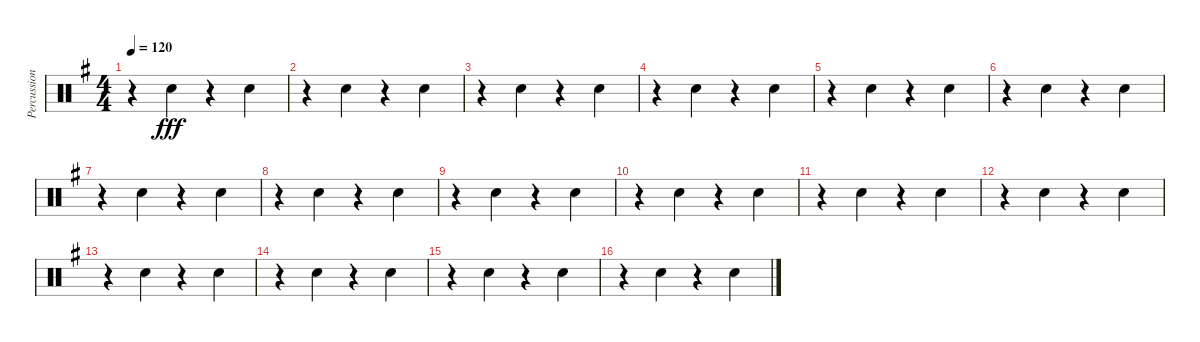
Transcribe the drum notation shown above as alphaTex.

\track ("Percussion" "Percussion") {instrument percussion}
\staff {score}
\articulation defaults
\ts (4 4)
\tempo 120
\clef neutral
\ks g
r.4{dy f} "Hand Clap (hit)".4{dy fff} r.4 "Hand Clap (hit)".4 |
r.4 "Hand Clap (hit)".4 r.4 "Hand Clap (hit)".4 |
r.4 "Hand Clap (hit)".4 r.4 "Hand Clap (hit)".4 |
r.4 "Hand Clap (hit)".4 r.4 "Hand Clap (hit)".4 |
r.4 "Hand Clap (hit)".4 r.4 "Hand Clap (hit)".4 |
r.4 "Hand Clap (hit)".4 r.4 "Hand Clap (hit)".4 |
r.4 "Hand Clap (hit)".4 r.4 "Hand Clap (hit)".4 |
r.4 "Hand Clap (hit)".4 r.4 "Hand Clap (hit)".4 |
r.4 "Hand Clap (hit)".4 r.4 "Hand Clap (hit)".4 |
r.4 "Hand Clap (hit)".4 r.4 "Hand Clap (hit)".4 |
r.4 "Hand Clap (hit)".4 r.4 "Hand Clap (hit)".4 |
r.4 "Hand Clap (hit)".4 r.4 "Hand Clap (hit)".4 |
r.4 "Hand Clap (hit)".4 r.4 "Hand Clap (hit)".4 |
r.4 "Hand Clap (hit)".4 r.4 "Hand Clap (hit)".4 |
r.4 "Hand Clap (hit)".4 r.4 "Hand Clap (hit)".4 |
r.4 "Hand Clap (hit)".4 r.4 "Hand Clap (hit)".4
